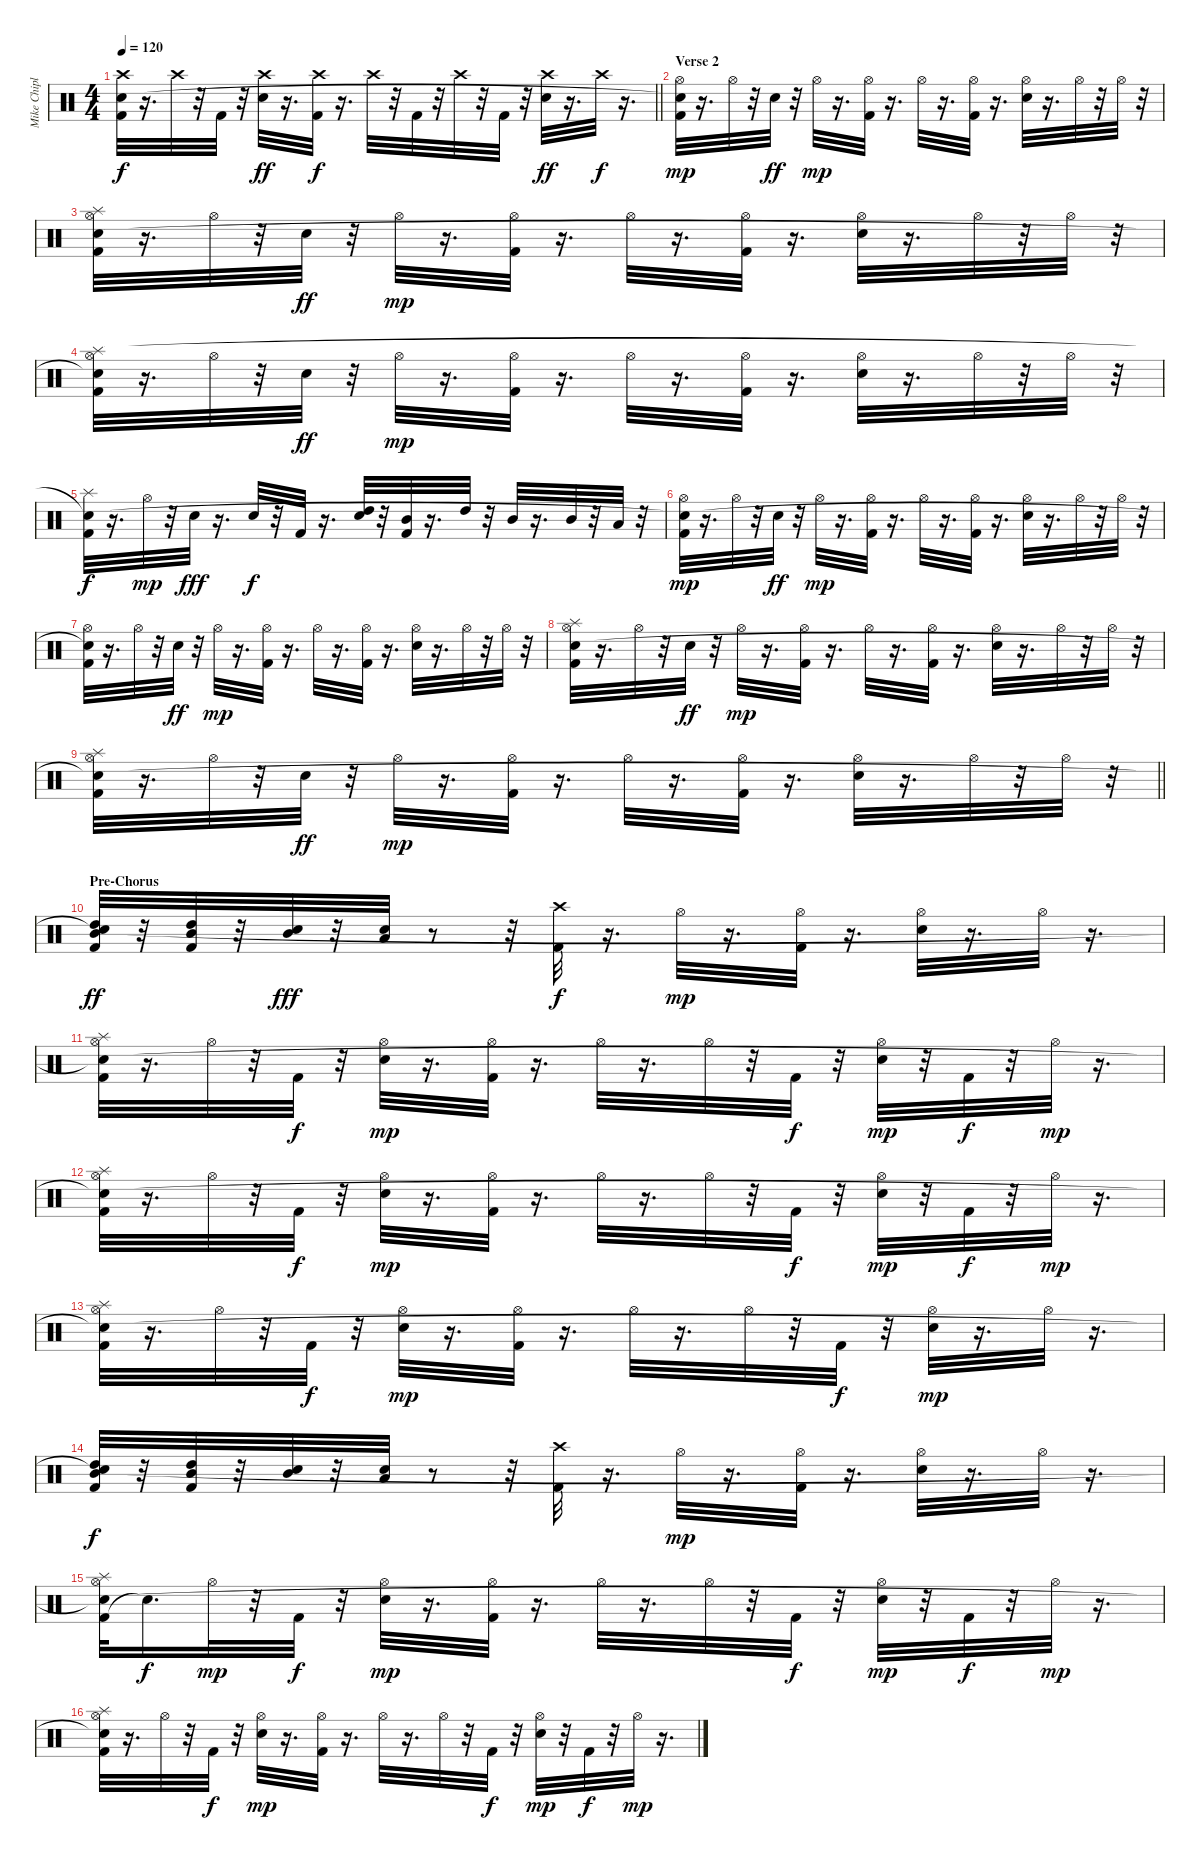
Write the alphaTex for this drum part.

\track ("Mike Chiplin - Drums" "Mike Chipl") {instrument percussion}
\staff {score}
\articulation defaults
\ts (4 4)
\tempo 120
\clef neutral
\barLineRight lightlight
\ks c
("Kick (hit) 2" "Crash high (hit)" "Snare (hit)"{t}).32{dy f} r.16{d} "Crash high (hit)".32 r.32 "Kick (hit) 2".32 r.32 ("Snare (hit) 2" "Crash high (hit)").32{dy ff} r.16{d} ("Kick (hit) 2" "Crash high (hit)").32{dy f} r.16{d} "Crash high (hit)".32 r.32 "Kick (hit) 2".32 r.32 "Crash high (hit)".32 r.32 "Kick (hit) 2".32 r.32 ("Snare (hit) 2" "Crash high (hit)").32{dy ff} r.16{d} "Crash high (hit)".32{dy f} r.16{d} |
\section ("" "Verse 2")
("Kick (hit) 2" "Hi-Hat (open)" "Snare (hit)"{t}).32{dy mp} r.16{d} "Hi-Hat (open)".32 r.32 "Snare (hit) 2".32{dy ff} r.32 "Hi-Hat (open)".32{dy mp} r.16{d} ("Kick (hit) 2" "Hi-Hat (open)").32 r.16{d} "Hi-Hat (open)".32 r.16{d} ("Kick (hit) 2" "Hi-Hat (open)").32 r.16{d} ("Snare (hit) 2" "Hi-Hat (open)").32 r.16{d} "Hi-Hat (open)".32 r.32 "Hi-Hat (open)".32 r.32 |
("Kick (hit) 2" "Hi-Hat (open)" "Splash (hit)" "Snare (hit)").32 r.16{d} "Hi-Hat (open)".32 r.32 "Snare (hit) 2".32{dy ff} r.32 "Hi-Hat (open)".32{dy mp} r.16{d} ("Kick (hit) 2" "Hi-Hat (open)").32 r.16{d} "Hi-Hat (open)".32 r.16{d} ("Kick (hit) 2" "Hi-Hat (open)").32 r.16{d} ("Snare (hit) 2" "Hi-Hat (open)").32 r.16{d} "Hi-Hat (open)".32 r.32 "Hi-Hat (open)".32 r.32 |
("Kick (hit) 2" "Hi-Hat (open)" "Splash (hit)" "Snare (hit)"{t}).32 r.16{d} "Hi-Hat (open)".32 r.32 "Snare (hit) 2".32{dy ff} r.32 "Hi-Hat (open)".32{dy mp} r.16{d} ("Kick (hit) 2" "Hi-Hat (open)").32 r.16{d} "Hi-Hat (open)".32 r.16{d} ("Kick (hit) 2" "Hi-Hat (open)").32 r.16{d} ("Snare (hit) 2" "Hi-Hat (open)").32 r.16{d} "Hi-Hat (open)".32 r.32 "Hi-Hat (open)".32 r.32 |
("Kick (hit) 2" "Splash (hit)" "Snare (hit)"{t}).32{dy f} r.16{d} "Hi-Hat (open)".32{dy mp} r.32 "Snare (hit) 2".32{dy fff} r.16{d} "Snare (hit) 2".32{dy f} r.32 "Kick (hit) 2".32 r.16{d} ("Snare (hit) 2" "High Tom (hit)").32 r.32 ("Kick (hit) 2" "Mid Tom (hit)").32 r.16{d} "High Tom (hit)".32 r.32 "Mid Tom (hit)".32 r.16{d} "Mid Tom (hit)".32 r.32 "Low Tom (hit)".32 r.32 |
("Kick (hit) 2" "Hi-Hat (open)" "Snare (hit)"{t}).32{dy mp} r.16{d} "Hi-Hat (open)".32 r.32 "Snare (hit) 2".32{dy ff} r.32 "Hi-Hat (open)".32{dy mp} r.16{d} ("Kick (hit) 2" "Hi-Hat (open)").32 r.16{d} "Hi-Hat (open)".32 r.16{d} ("Kick (hit) 2" "Hi-Hat (open)").32 r.16{d} ("Snare (hit) 2" "Hi-Hat (open)").32 r.16{d} "Hi-Hat (open)".32 r.32 "Hi-Hat (open)".32 r.32 |
("Kick (hit) 2" "Hi-Hat (open)" "Snare (hit)"{t}).32 r.16{d} "Hi-Hat (open)".32 r.32 "Snare (hit) 2".32{dy ff} r.32 "Hi-Hat (open)".32{dy mp} r.16{d} ("Kick (hit) 2" "Hi-Hat (open)").32 r.16{d} "Hi-Hat (open)".32 r.16{d} ("Kick (hit) 2" "Hi-Hat (open)").32 r.16{d} ("Snare (hit) 2" "Hi-Hat (open)").32 r.16{d} "Hi-Hat (open)".32 r.32 "Hi-Hat (open)".32 r.32 |
("Kick (hit) 2" "Hi-Hat (open)" "Splash (hit)" "Snare (hit)").32 r.16{d} "Hi-Hat (open)".32 r.32 "Snare (hit) 2".32{dy ff} r.32 "Hi-Hat (open)".32{dy mp} r.16{d} ("Kick (hit) 2" "Hi-Hat (open)").32 r.16{d} "Hi-Hat (open)".32 r.16{d} ("Kick (hit) 2" "Hi-Hat (open)").32 r.16{d} ("Snare (hit) 2" "Hi-Hat (open)").32 r.16{d} "Hi-Hat (open)".32 r.32 "Hi-Hat (open)".32 r.32 |
\barLineRight lightlight
("Kick (hit) 2" "Hi-Hat (open)" "Splash (hit)" "Snare (hit)"{t}).32 r.16{d} "Hi-Hat (open)".32 r.32 "Snare (hit) 2".32{dy ff} r.32 "Hi-Hat (open)".32{dy mp} r.16{d} ("Kick (hit) 2" "Hi-Hat (open)").32 r.16{d} "Hi-Hat (open)".32 r.16{d} ("Kick (hit) 2" "Hi-Hat (open)").32 r.16{d} ("Snare (hit) 2" "Hi-Hat (open)").32 r.16{d} "Hi-Hat (open)".32 r.32 "Hi-Hat (open)".32 r.32 |
\section ("" "Pre-Chorus")
("Kick (hit) 2" "Mid Tom (hit)" "High Tom (hit)" "Snare (hit)"{t}).32{dy ff} r.32 ("Kick (hit) 2" "Mid Tom (hit)" "High Tom (hit)").32 r.32 ("Snare (hit) 2" "Mid Tom (hit)").32{dy fff} r.32 ("Snare (hit) 2" "Low Tom (hit)").32 r.8 r.32 ("Kick (hit) 2" "Crash high (hit)").32{dy f} r.16{d} "Hi-Hat (open)".32{dy mp} r.16{d} ("Kick (hit) 2" "Hi-Hat (open)").32 r.16{d} ("Snare (hit) 2" "Hi-Hat (open)").32 r.16{d} "Hi-Hat (open)".32 r.16{d} |
("Kick (hit) 2" "Hi-Hat (open)" "Splash (hit)" "Snare (hit)"{t}).32 r.16{d} "Hi-Hat (open)".32 r.32 "Kick (hit) 2".32{dy f} r.32 ("Snare (hit) 2" "Hi-Hat (open)").32{dy mp} r.16{d} ("Kick (hit) 2" "Hi-Hat (open)").32 r.16{d} "Hi-Hat (open)".32 r.16{d} "Hi-Hat (open)".32 r.32 "Kick (hit) 2".32{dy f} r.32 ("Snare (hit) 2" "Hi-Hat (open)").32{dy mp} r.32 "Kick (hit) 2".32{dy f} r.32 "Hi-Hat (open)".32{dy mp} r.16{d} |
("Kick (hit) 2" "Hi-Hat (open)" "Splash (hit)" "Snare (hit)"{t}).32 r.16{d} "Hi-Hat (open)".32 r.32 "Kick (hit) 2".32{dy f} r.32 ("Snare (hit) 2" "Hi-Hat (open)").32{dy mp} r.16{d} ("Kick (hit) 2" "Hi-Hat (open)").32 r.16{d} "Hi-Hat (open)".32 r.16{d} "Hi-Hat (open)".32 r.32 "Kick (hit) 2".32{dy f} r.32 ("Snare (hit) 2" "Hi-Hat (open)").32{dy mp} r.32 "Kick (hit) 2".32{dy f} r.32 "Hi-Hat (open)".32{dy mp} r.16{d} |
("Kick (hit) 2" "Hi-Hat (open)" "Splash (hit)" "Snare (hit)"{t}).32 r.16{d} "Hi-Hat (open)".32 r.32 "Kick (hit) 2".32{dy f} r.32 ("Snare (hit) 2" "Hi-Hat (open)").32{dy mp} r.16{d} ("Kick (hit) 2" "Hi-Hat (open)").32 r.16{d} "Hi-Hat (open)".32 r.16{d} "Hi-Hat (open)".32 r.32 "Kick (hit) 2".32{dy f} r.32 ("Snare (hit) 2" "Hi-Hat (open)").32{dy mp} r.16{d} "Hi-Hat (open)".32 r.16{d} |
("Kick (hit) 2" "Mid Tom (hit)" "High Tom (hit)" "Snare (hit)"{t}).32{dy f} r.32 ("Kick (hit) 2" "Mid Tom (hit)" "High Tom (hit)").32 r.32 ("Snare (hit) 2" "Mid Tom (hit)").32 r.32 ("Snare (hit) 2" "Low Tom (hit)").32 r.8 r.32 ("Kick (hit) 2" "Crash high (hit)").32 r.16{d} "Hi-Hat (open)".32{dy mp} r.16{d} ("Kick (hit) 2" "Hi-Hat (open)").32 r.16{d} ("Snare (hit) 2" "Hi-Hat (open)").32 r.16{d} "Hi-Hat (open)".32 r.16{d} |
("Kick (hit) 2" "Hi-Hat (open)" "Splash (hit)" "Snare (hit)"{t}).32 "Snare (hit)"{t}.16{d dy f} "Hi-Hat (open)".32{dy mp} r.32 "Kick (hit) 2".32{dy f} r.32 ("Snare (hit) 2" "Hi-Hat (open)").32{dy mp} r.16{d} ("Kick (hit) 2" "Hi-Hat (open)").32 r.16{d} "Hi-Hat (open)".32 r.16{d} "Hi-Hat (open)".32 r.32 "Kick (hit) 2".32{dy f} r.32 ("Snare (hit) 2" "Hi-Hat (open)").32{dy mp} r.32 "Kick (hit) 2".32{dy f} r.32 "Hi-Hat (open)".32{dy mp} r.16{d} |
("Kick (hit) 2" "Hi-Hat (open)" "Splash (hit)" "Snare (hit)"{t}).32 r.16{d} "Hi-Hat (open)".32 r.32 "Kick (hit) 2".32{dy f} r.32 ("Snare (hit) 2" "Hi-Hat (open)").32{dy mp} r.16{d} ("Kick (hit) 2" "Hi-Hat (open)").32 r.16{d} "Hi-Hat (open)".32 r.16{d} "Hi-Hat (open)".32 r.32 "Kick (hit) 2".32{dy f} r.32 ("Snare (hit) 2" "Hi-Hat (open)").32{dy mp} r.32 "Kick (hit) 2".32{dy f} r.32 "Hi-Hat (open)".32{dy mp} r.16{d}
